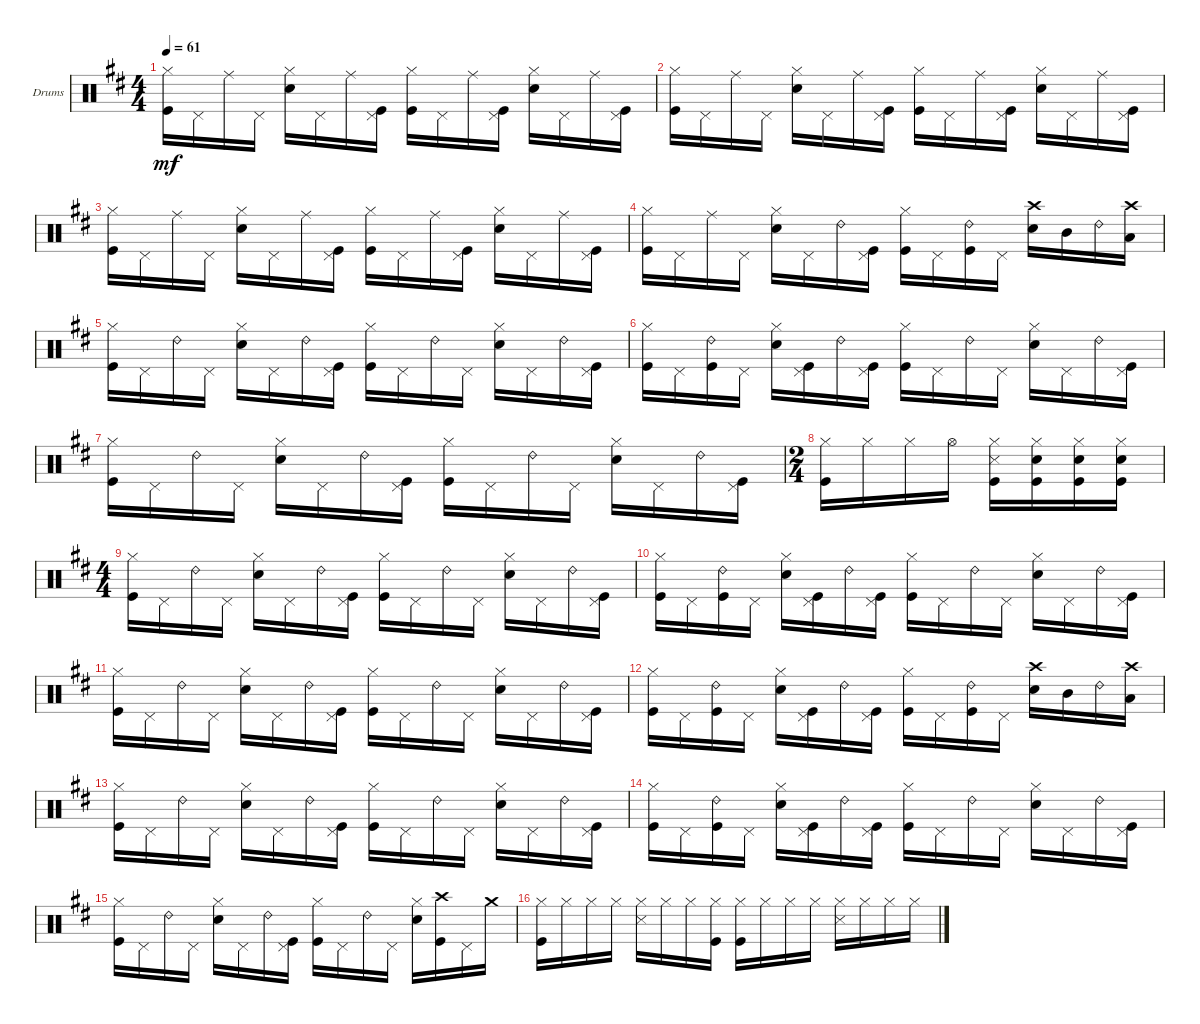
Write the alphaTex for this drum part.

\defaultSystemsLayout 4
\bracketExtendMode groupsimilarinstruments
\firstSystemTrackNameOrientation horizontal
\otherSystemsTrackNameOrientation horizontal
\track ("Drumkit" "Drums") {multiBarRest instrument percussion}
\staff {score}
\articulation defaults
\ts (4 4)
\tempo 61
\clef neutral
\scale
0.333333
\ks d
("Hi-Hat (closed)" "Kick (hit)").16{dy mf} "Pedal Hi-Hat (hit)".16 "Ride (middle)".16 "Pedal Hi-Hat (hit)".16 ("Hi-Hat (closed)" "Snare (hit) 2").16 "Pedal Hi-Hat (hit)".16 "Ride (middle)".16 ("Kick (hit)" "Pedal Hi-Hat (hit)").16 ("Hi-Hat (closed)" "Kick (hit)").16 "Pedal Hi-Hat (hit)".16 "Ride (middle)".16 ("Kick (hit)" "Pedal Hi-Hat (hit)").16 ("Hi-Hat (closed)" "Snare (hit) 2").16 "Pedal Hi-Hat (hit)".16 "Ride (middle)".16 ("Kick (hit)" "Pedal Hi-Hat (hit)").16 |
\scale
0.333333 ("Hi-Hat (closed)" "Kick (hit)").16 "Pedal Hi-Hat (hit)".16 "Ride (middle)".16 "Pedal Hi-Hat (hit)".16 ("Hi-Hat (closed)" "Snare (hit) 2").16 "Pedal Hi-Hat (hit)".16 "Ride (middle)".16 ("Kick (hit)" "Pedal Hi-Hat (hit)").16 ("Hi-Hat (closed)" "Kick (hit)").16 "Pedal Hi-Hat (hit)".16 "Ride (middle)".16 ("Kick (hit)" "Pedal Hi-Hat (hit)").16 ("Hi-Hat (closed)" "Snare (hit) 2").16 "Pedal Hi-Hat (hit)".16 "Ride (middle)".16 ("Kick (hit)" "Pedal Hi-Hat (hit)").16 |
\scale
0.333333 ("Hi-Hat (closed)" "Kick (hit)").16 "Pedal Hi-Hat (hit)".16 "Ride (middle)".16 "Pedal Hi-Hat (hit)".16 ("Hi-Hat (closed)" "Snare (hit) 2").16 "Pedal Hi-Hat (hit)".16 "Ride (middle)".16 ("Kick (hit)" "Pedal Hi-Hat (hit)").16 ("Hi-Hat (closed)" "Kick (hit)").16 "Pedal Hi-Hat (hit)".16 "Ride (middle)".16 ("Kick (hit)" "Pedal Hi-Hat (hit)").16 ("Hi-Hat (closed)" "Snare (hit) 2").16 "Pedal Hi-Hat (hit)".16 "Ride (middle)".16 ("Kick (hit)" "Pedal Hi-Hat (hit)").16 |
\scale
0.333333 ("Hi-Hat (closed)" "Kick (hit)").16 "Pedal Hi-Hat (hit)".16 "Ride (middle)".16 "Pedal Hi-Hat (hit)".16 ("Hi-Hat (closed)" "Snare (hit) 2").16 "Pedal Hi-Hat (hit)".16 "Ride (bell) 2".16 ("Kick (hit)" "Pedal Hi-Hat (hit)").16 ("Hi-Hat (closed)" "Kick (hit)").16 "Pedal Hi-Hat (hit)".16 ("Ride (bell) 2" "Kick (hit)").16 "Pedal Hi-Hat (hit)".16 ("Crash high (hit)" "Snare (hit) 2").16 "Mid Tom (hit)".16 "Ride (bell) 2".16 ("Low Tom (hit)" "Crash high (hit)").16 |
\scale
0.333333 ("Hi-Hat (closed)" "Kick (hit)").16 "Pedal Hi-Hat (hit)".16 "Ride (bell) 2".16 "Pedal Hi-Hat (hit)".16 ("Hi-Hat (closed)" "Snare (hit) 2").16 "Pedal Hi-Hat (hit)".16 "Ride (bell) 2".16 ("Kick (hit)" "Pedal Hi-Hat (hit)").16 ("Hi-Hat (closed)" "Kick (hit)").16 "Pedal Hi-Hat (hit)".16 "Ride (bell) 2".16 "Pedal Hi-Hat (hit)".16 ("Hi-Hat (closed)" "Snare (hit) 2").16 "Pedal Hi-Hat (hit)".16 "Ride (bell) 2".16 ("Kick (hit)" "Pedal Hi-Hat (hit)").16 |
\scale
0.333333 ("Hi-Hat (closed)" "Kick (hit)").16 "Pedal Hi-Hat (hit)".16 ("Ride (bell) 2" "Kick (hit)").16 "Pedal Hi-Hat (hit)".16 ("Hi-Hat (closed)" "Snare (hit) 2").16 ("Kick (hit)" "Pedal Hi-Hat (hit)").16 "Ride (bell) 2".16 ("Kick (hit)" "Pedal Hi-Hat (hit)").16 ("Hi-Hat (closed)" "Kick (hit)").16 "Pedal Hi-Hat (hit)".16 "Ride (bell) 2".16 "Pedal Hi-Hat (hit)".16 ("Hi-Hat (closed)" "Snare (hit) 2").16 "Pedal Hi-Hat (hit)".16 "Ride (bell) 2".16 ("Kick (hit)" "Pedal Hi-Hat (hit)").16 |
\scale
0.333333 ("Hi-Hat (closed)" "Kick (hit)").16 "Pedal Hi-Hat (hit)".16 "Ride (bell) 2".16 "Pedal Hi-Hat (hit)".16 ("Hi-Hat (closed)" "Snare (hit) 2").16 "Pedal Hi-Hat (hit)".16 "Ride (bell) 2".16 ("Kick (hit)" "Pedal Hi-Hat (hit)").16 ("Hi-Hat (closed)" "Kick (hit)").16 "Pedal Hi-Hat (hit)".16 "Ride (bell) 2".16 "Pedal Hi-Hat (hit)".16 ("Hi-Hat (closed)" "Snare (hit) 2").16 "Pedal Hi-Hat (hit)".16 "Ride (bell) 2".16 ("Kick (hit)" "Pedal Hi-Hat (hit)").16 |
\ts (2 4)
\scale
0.404682 ("Hi-Hat (closed)" "Kick (hit)").16 "Hi-Hat (closed)".16 "Hi-Hat (closed)".16 "Hi-Hat (open)".16 ("Hi-Hat (closed)" "Snare (side stick) 3" "Kick (hit)").16 ("Hi-Hat (closed)" "Kick (hit)" "Snare (hit) 2").16 ("Hi-Hat (closed)" "Kick (hit)" "Snare (hit) 2").16 ("Hi-Hat (closed)" "Kick (hit)" "Snare (hit) 2").16 |
\ts (4 4)
\scale
0.404682 ("Hi-Hat (closed)" "Kick (hit)").16 "Pedal Hi-Hat (hit)".16 "Ride (bell) 2".16 "Pedal Hi-Hat (hit)".16 ("Hi-Hat (closed)" "Snare (hit) 2").16 "Pedal Hi-Hat (hit)".16 "Ride (bell) 2".16 ("Kick (hit)" "Pedal Hi-Hat (hit)").16 ("Hi-Hat (closed)" "Kick (hit)").16 "Pedal Hi-Hat (hit)".16 "Ride (bell) 2".16 "Pedal Hi-Hat (hit)".16 ("Hi-Hat (closed)" "Snare (hit) 2").16 "Pedal Hi-Hat (hit)".16 "Ride (bell) 2".16 ("Kick (hit)" "Pedal Hi-Hat (hit)").16 |
\scale
0.190635 ("Hi-Hat (closed)" "Kick (hit)").16 "Pedal Hi-Hat (hit)".16 ("Ride (bell) 2" "Kick (hit)").16 "Pedal Hi-Hat (hit)".16 ("Hi-Hat (closed)" "Snare (hit) 2").16 ("Kick (hit)" "Pedal Hi-Hat (hit)").16 "Ride (bell) 2".16 ("Kick (hit)" "Pedal Hi-Hat (hit)").16 ("Hi-Hat (closed)" "Kick (hit)").16 "Pedal Hi-Hat (hit)".16 "Ride (bell) 2".16 "Pedal Hi-Hat (hit)".16 ("Hi-Hat (closed)" "Snare (hit) 2").16 "Pedal Hi-Hat (hit)".16 "Ride (bell) 2".16 ("Kick (hit)" "Pedal Hi-Hat (hit)").16 |
\scale
0.333333 ("Hi-Hat (closed)" "Kick (hit)").16 "Pedal Hi-Hat (hit)".16 "Ride (bell) 2".16 "Pedal Hi-Hat (hit)".16 ("Hi-Hat (closed)" "Snare (hit) 2").16 "Pedal Hi-Hat (hit)".16 "Ride (bell) 2".16 ("Kick (hit)" "Pedal Hi-Hat (hit)").16 ("Hi-Hat (closed)" "Kick (hit)").16 "Pedal Hi-Hat (hit)".16 "Ride (bell) 2".16 "Pedal Hi-Hat (hit)".16 ("Hi-Hat (closed)" "Snare (hit) 2").16 "Pedal Hi-Hat (hit)".16 "Ride (bell) 2".16 ("Kick (hit)" "Pedal Hi-Hat (hit)").16 |
\scale
0.333333 ("Hi-Hat (closed)" "Kick (hit)").16 "Pedal Hi-Hat (hit)".16 ("Ride (bell) 2" "Kick (hit)").16 "Pedal Hi-Hat (hit)".16 ("Hi-Hat (closed)" "Snare (hit) 2").16 ("Kick (hit)" "Pedal Hi-Hat (hit)").16 "Ride (bell) 2".16 ("Kick (hit)" "Pedal Hi-Hat (hit)").16 ("Hi-Hat (closed)" "Kick (hit)").16 "Pedal Hi-Hat (hit)".16 ("Ride (bell) 2" "Kick (hit)").16 "Pedal Hi-Hat (hit)".16 ("Crash high (hit)" "Snare (hit) 2").16 "Mid Tom (hit)".16 "Ride (bell) 2".16 ("Low Tom (hit)" "Crash high (hit)").16 |
\scale
0.333333 ("Hi-Hat (closed)" "Kick (hit)").16 "Pedal Hi-Hat (hit)".16 "Ride (bell) 2".16 "Pedal Hi-Hat (hit)".16 ("Hi-Hat (closed)" "Snare (hit) 2").16 "Pedal Hi-Hat (hit)".16 "Ride (bell) 2".16 ("Kick (hit)" "Pedal Hi-Hat (hit)").16 ("Hi-Hat (closed)" "Kick (hit)").16 "Pedal Hi-Hat (hit)".16 "Ride (bell) 2".16 "Pedal Hi-Hat (hit)".16 ("Hi-Hat (closed)" "Snare (hit) 2").16 "Pedal Hi-Hat (hit)".16 "Ride (bell) 2".16 ("Kick (hit)" "Pedal Hi-Hat (hit)").16 |
\scale
0.333333 ("Hi-Hat (closed)" "Kick (hit)").16 "Pedal Hi-Hat (hit)".16 ("Ride (bell) 2" "Kick (hit)").16 "Pedal Hi-Hat (hit)".16 ("Hi-Hat (closed)" "Snare (hit) 2").16 ("Kick (hit)" "Pedal Hi-Hat (hit)").16 "Ride (bell) 2".16 ("Kick (hit)" "Pedal Hi-Hat (hit)").16 ("Hi-Hat (closed)" "Kick (hit)").16 "Pedal Hi-Hat (hit)".16 "Ride (bell) 2".16 "Pedal Hi-Hat (hit)".16 ("Hi-Hat (closed)" "Snare (hit) 2").16 "Pedal Hi-Hat (hit)".16 "Ride (bell) 2".16 ("Kick (hit)" "Pedal Hi-Hat (hit)").16 |
\scale
0.333333 ("Hi-Hat (closed)" "Kick (hit)").16 "Pedal Hi-Hat (hit)".16 "Ride (bell) 2".16 "Pedal Hi-Hat (hit)".16 ("Hi-Hat (closed)" "Snare (hit) 2").16 "Pedal Hi-Hat (hit)".16 "Ride (bell) 2".16 ("Kick (hit)" "Pedal Hi-Hat (hit)").16 ("Hi-Hat (closed)" "Kick (hit)").16 "Pedal Hi-Hat (hit)".16 "Ride (bell) 2".16 "Pedal Hi-Hat (hit)".16 ("Hi-Hat (closed)" "Snare (hit) 2").16 ("Kick (hit)" "Crash high (hit)").16 "Pedal Hi-Hat (hit)".16 "Crash medium (hit)".16 |
\scale
0.333333 ("Kick (hit)" "Hi-Hat (closed)").16 "Hi-Hat (closed)".16 "Hi-Hat (closed)".16 "Hi-Hat (closed)".16 ("Snare (side stick) 3" "Hi-Hat (closed)").16 "Hi-Hat (closed)".16 "Hi-Hat (closed)".16 ("Kick (hit)" "Hi-Hat (closed)").16 ("Kick (hit)" "Hi-Hat (closed)").16 "Hi-Hat (closed)".16 "Hi-Hat (closed)".16 "Hi-Hat (closed)".16 ("Snare (side stick) 3" "Hi-Hat (closed)").16 "Hi-Hat (closed)".16 "Hi-Hat (closed)".16 "Hi-Hat (closed)".16
